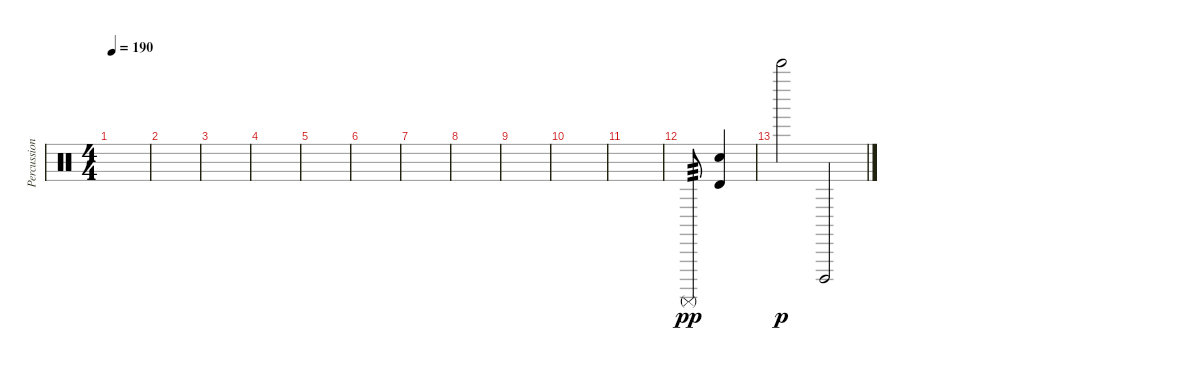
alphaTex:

\track ("Percussion" "Percussion") {instrument percussion}
\staff {score}
\articulation defaults
\ts (4 4)
\tempo 190
\clef neutral
\ks c
|
|
|
|
|
|
|
|
|
|
|
"Surdo (mute)".8{tp 3 dy pp} ("Timbale high (hit)" "Electric Snare (hit)").4 |
"Bell Tree (hit)".2{dy p} "Cuica (open)".2
